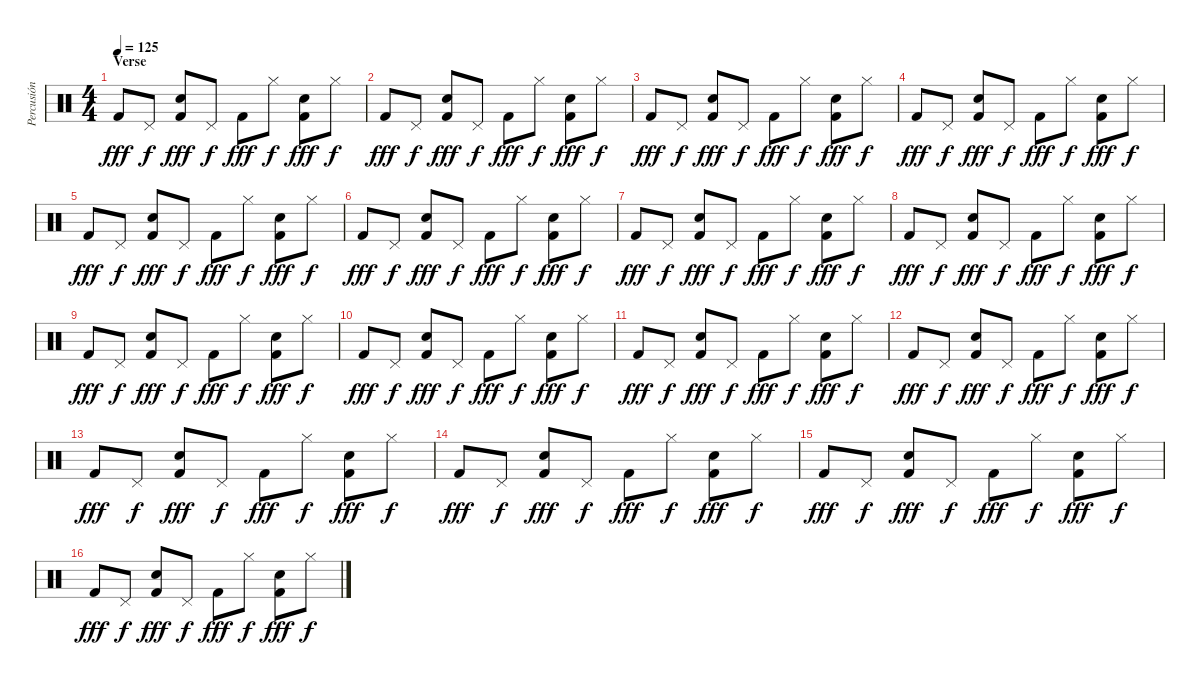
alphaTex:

\track ("Percusión" "Percusión") {instrument percussion}
\staff {score}
\articulation defaults
\ts (4 4)
\section ("" "Verse")
\tempo 125
\clef neutral
\ks c "Kick (hit) 2".8{dy fff} "Pedal Hi-Hat (hit)".8{dy f}
("Electric Snare (hit)" "Kick (hit) 2").8{dy fff} "Pedal Hi-Hat (hit)".8{dy f} "Kick (hit) 2".8{dy fff} "Hi-Hat (closed)".8{dy f} ("Electric Snare (hit)" "Kick (hit) 2").8{dy fff} "Hi-Hat (closed)".8{dy f} |
"Kick (hit) 2".8{dy fff} "Pedal Hi-Hat (hit)".8{dy f} ("Electric Snare (hit)" "Kick (hit) 2").8{dy fff} "Pedal Hi-Hat (hit)".8{dy f} "Kick (hit) 2".8{dy fff} "Hi-Hat (closed)".8{dy f} ("Electric Snare (hit)" "Kick (hit) 2").8{dy fff} "Hi-Hat (closed)".8{dy f} |
"Kick (hit) 2".8{dy fff} "Pedal Hi-Hat (hit)".8{dy f} ("Electric Snare (hit)" "Kick (hit) 2").8{dy fff} "Pedal Hi-Hat (hit)".8{dy f} "Kick (hit) 2".8{dy fff} "Hi-Hat (closed)".8{dy f} ("Electric Snare (hit)" "Kick (hit) 2").8{dy fff} "Hi-Hat (closed)".8{dy f} |
"Kick (hit) 2".8{dy fff} "Pedal Hi-Hat (hit)".8{dy f} ("Electric Snare (hit)" "Kick (hit) 2").8{dy fff} "Pedal Hi-Hat (hit)".8{dy f} "Kick (hit) 2".8{dy fff} "Hi-Hat (closed)".8{dy f} ("Electric Snare (hit)" "Kick (hit) 2").8{dy fff} "Hi-Hat (closed)".8{dy f} |
"Kick (hit) 2".8{dy fff} "Pedal Hi-Hat (hit)".8{dy f} ("Electric Snare (hit)" "Kick (hit) 2").8{dy fff} "Pedal Hi-Hat (hit)".8{dy f} "Kick (hit) 2".8{dy fff} "Hi-Hat (closed)".8{dy f} ("Electric Snare (hit)" "Kick (hit) 2").8{dy fff} "Hi-Hat (closed)".8{dy f} |
"Kick (hit) 2".8{dy fff} "Pedal Hi-Hat (hit)".8{dy f} ("Electric Snare (hit)" "Kick (hit) 2").8{dy fff} "Pedal Hi-Hat (hit)".8{dy f} "Kick (hit) 2".8{dy fff} "Hi-Hat (closed)".8{dy f} ("Electric Snare (hit)" "Kick (hit) 2").8{dy fff} "Hi-Hat (closed)".8{dy f} |
"Kick (hit) 2".8{dy fff} "Pedal Hi-Hat (hit)".8{dy f} ("Electric Snare (hit)" "Kick (hit) 2").8{dy fff} "Pedal Hi-Hat (hit)".8{dy f} "Kick (hit) 2".8{dy fff} "Hi-Hat (closed)".8{dy f} ("Electric Snare (hit)" "Kick (hit) 2").8{dy fff} "Hi-Hat (closed)".8{dy f} |
"Kick (hit) 2".8{dy fff} "Pedal Hi-Hat (hit)".8{dy f} ("Electric Snare (hit)" "Kick (hit) 2").8{dy fff} "Pedal Hi-Hat (hit)".8{dy f} "Kick (hit) 2".8{dy fff} "Hi-Hat (closed)".8{dy f} ("Electric Snare (hit)" "Kick (hit) 2").8{dy fff} "Hi-Hat (closed)".8{dy f} |
"Kick (hit) 2".8{dy fff} "Pedal Hi-Hat (hit)".8{dy f} ("Electric Snare (hit)" "Kick (hit) 2").8{dy fff} "Pedal Hi-Hat (hit)".8{dy f} "Kick (hit) 2".8{dy fff} "Hi-Hat (closed)".8{dy f} ("Electric Snare (hit)" "Kick (hit) 2").8{dy fff} "Hi-Hat (closed)".8{dy f} |
"Kick (hit) 2".8{dy fff} "Pedal Hi-Hat (hit)".8{dy f} ("Electric Snare (hit)" "Kick (hit) 2").8{dy fff} "Pedal Hi-Hat (hit)".8{dy f} "Kick (hit) 2".8{dy fff} "Hi-Hat (closed)".8{dy f} ("Electric Snare (hit)" "Kick (hit) 2").8{dy fff} "Hi-Hat (closed)".8{dy f} |
"Kick (hit) 2".8{dy fff} "Pedal Hi-Hat (hit)".8{dy f} ("Electric Snare (hit)" "Kick (hit) 2").8{dy fff} "Pedal Hi-Hat (hit)".8{dy f} "Kick (hit) 2".8{dy fff} "Hi-Hat (closed)".8{dy f} ("Electric Snare (hit)" "Kick (hit) 2").8{dy fff} "Hi-Hat (closed)".8{dy f} |
"Kick (hit) 2".8{dy fff} "Pedal Hi-Hat (hit)".8{dy f} ("Electric Snare (hit)" "Kick (hit) 2").8{dy fff} "Pedal Hi-Hat (hit)".8{dy f} "Kick (hit) 2".8{dy fff} "Hi-Hat (closed)".8{dy f} ("Electric Snare (hit)" "Kick (hit) 2").8{dy fff} "Hi-Hat (closed)".8{dy f} |
"Kick (hit) 2".8{dy fff} "Pedal Hi-Hat (hit)".8{dy f} ("Electric Snare (hit)" "Kick (hit) 2").8{dy fff} "Pedal Hi-Hat (hit)".8{dy f} "Kick (hit) 2".8{dy fff} "Hi-Hat (closed)".8{dy f} ("Electric Snare (hit)" "Kick (hit) 2").8{dy fff} "Hi-Hat (closed)".8{dy f} |
"Kick (hit) 2".8{dy fff} "Pedal Hi-Hat (hit)".8{dy f} ("Electric Snare (hit)" "Kick (hit) 2").8{dy fff} "Pedal Hi-Hat (hit)".8{dy f} "Kick (hit) 2".8{dy fff} "Hi-Hat (closed)".8{dy f} ("Electric Snare (hit)" "Kick (hit) 2").8{dy fff} "Hi-Hat (closed)".8{dy f} |
"Kick (hit) 2".8{dy fff} "Pedal Hi-Hat (hit)".8{dy f} ("Electric Snare (hit)" "Kick (hit) 2").8{dy fff} "Pedal Hi-Hat (hit)".8{dy f} "Kick (hit) 2".8{dy fff} "Hi-Hat (closed)".8{dy f} ("Electric Snare (hit)" "Kick (hit) 2").8{dy fff} "Hi-Hat (closed)".8{dy f} |
"Kick (hit) 2".8{dy fff} "Pedal Hi-Hat (hit)".8{dy f} ("Electric Snare (hit)" "Kick (hit) 2").8{dy fff} "Pedal Hi-Hat (hit)".8{dy f} "Kick (hit) 2".8{dy fff} "Hi-Hat (closed)".8{dy f} ("Electric Snare (hit)" "Kick (hit) 2").8{dy fff} "Hi-Hat (closed)".8{dy f}
